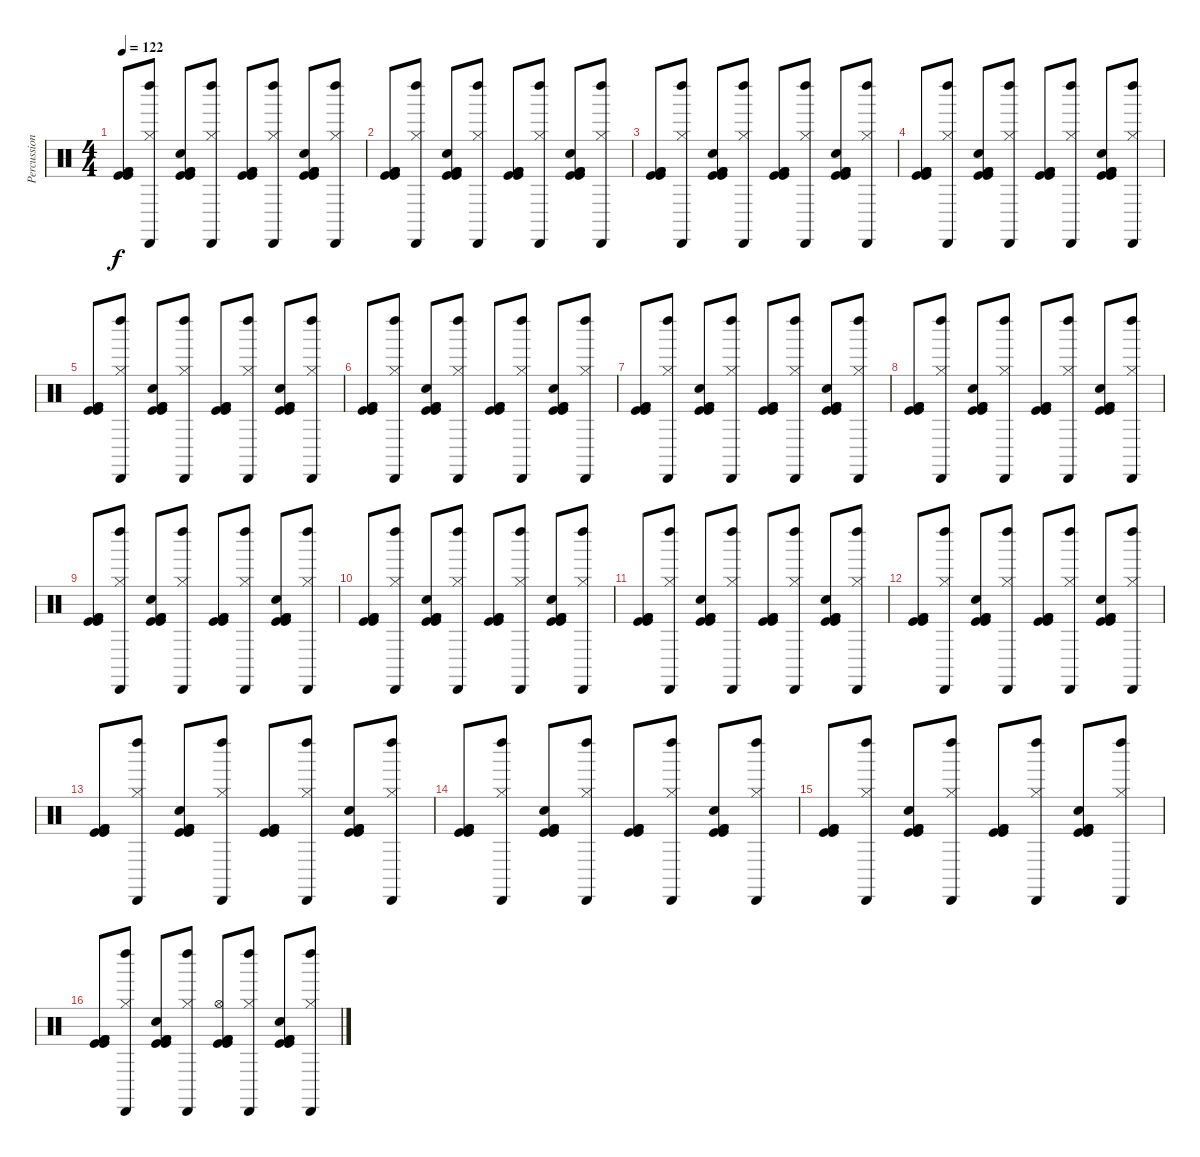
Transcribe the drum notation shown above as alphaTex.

\track ("Percussion" "Percussion") {instrument percussion}
\staff {score}
\articulation defaults
\ts (4 4)
\tempo 122
\clef neutral
\ks c
("Kick (hit)" "Kick (hit)" "Kick (hit) 2" "Kick (hit) 2").8{dy f} ("Cabasa (hit)" "Left Maraca (hit)" "Hi-Hat (closed)").8 ("Hand Clap (hit)" "Kick (hit)" "Kick (hit)" "Kick (hit) 2" "Kick (hit) 2").8 ("Cabasa (hit)" "Left Maraca (hit)" "Hi-Hat (closed)").8 ("Kick (hit)" "Kick (hit) 2" "Kick (hit) 2" "Kick (hit)").8 ("Cabasa (hit)" "Left Maraca (hit)" "Hi-Hat (closed)").8 ("Hand Clap (hit)" "Kick (hit) 2" "Kick (hit)" "Kick (hit) 2" "Kick (hit)").8 ("Cabasa (hit)" "Left Maraca (hit)" "Hi-Hat (closed)").8 |
("Kick (hit)" "Kick (hit)" "Kick (hit) 2" "Kick (hit) 2").8 ("Cabasa (hit)" "Left Maraca (hit)" "Hi-Hat (closed)").8 ("Hand Clap (hit)" "Kick (hit)" "Kick (hit)" "Kick (hit) 2" "Kick (hit) 2").8 ("Cabasa (hit)" "Left Maraca (hit)" "Hi-Hat (closed)").8 ("Kick (hit)" "Kick (hit) 2" "Kick (hit) 2" "Kick (hit)").8 ("Cabasa (hit)" "Left Maraca (hit)" "Hi-Hat (closed)").8 ("Hand Clap (hit)" "Kick (hit) 2" "Kick (hit)" "Kick (hit) 2" "Kick (hit)").8 ("Cabasa (hit)" "Left Maraca (hit)" "Hi-Hat (closed)").8 |
("Kick (hit)" "Kick (hit)" "Kick (hit) 2" "Kick (hit) 2").8 ("Cabasa (hit)" "Left Maraca (hit)" "Hi-Hat (closed)").8 ("Hand Clap (hit)" "Kick (hit)" "Kick (hit)" "Kick (hit) 2" "Kick (hit) 2").8 ("Cabasa (hit)" "Left Maraca (hit)" "Hi-Hat (closed)").8 ("Kick (hit)" "Kick (hit) 2" "Kick (hit) 2" "Kick (hit)").8 ("Cabasa (hit)" "Left Maraca (hit)" "Hi-Hat (closed)").8 ("Hand Clap (hit)" "Kick (hit) 2" "Kick (hit)" "Kick (hit) 2" "Kick (hit)").8 ("Cabasa (hit)" "Left Maraca (hit)" "Hi-Hat (closed)").8 |
("Kick (hit)" "Kick (hit)" "Kick (hit) 2" "Kick (hit) 2").8 ("Cabasa (hit)" "Left Maraca (hit)" "Hi-Hat (closed)").8 ("Hand Clap (hit)" "Kick (hit)" "Kick (hit)" "Kick (hit) 2" "Kick (hit) 2").8 ("Cabasa (hit)" "Left Maraca (hit)" "Hi-Hat (closed)").8 ("Kick (hit)" "Kick (hit) 2" "Kick (hit) 2" "Kick (hit)").8 ("Cabasa (hit)" "Left Maraca (hit)" "Hi-Hat (closed)").8 ("Hand Clap (hit)" "Kick (hit) 2" "Kick (hit)" "Kick (hit) 2" "Kick (hit)").8 ("Cabasa (hit)" "Left Maraca (hit)" "Hi-Hat (closed)").8 |
("Kick (hit)" "Kick (hit)" "Kick (hit) 2" "Kick (hit) 2").8 ("Cabasa (hit)" "Left Maraca (hit)" "Hi-Hat (closed)").8 ("Hand Clap (hit)" "Kick (hit)" "Kick (hit)" "Kick (hit) 2" "Kick (hit) 2").8 ("Cabasa (hit)" "Left Maraca (hit)" "Hi-Hat (closed)").8 ("Kick (hit)" "Kick (hit) 2" "Kick (hit) 2" "Kick (hit)").8 ("Cabasa (hit)" "Left Maraca (hit)" "Hi-Hat (closed)").8 ("Hand Clap (hit)" "Kick (hit) 2" "Kick (hit)" "Kick (hit) 2" "Kick (hit)").8 ("Cabasa (hit)" "Left Maraca (hit)" "Hi-Hat (closed)").8 |
("Kick (hit)" "Kick (hit)" "Kick (hit) 2" "Kick (hit) 2").8 ("Cabasa (hit)" "Left Maraca (hit)" "Hi-Hat (closed)").8 ("Hand Clap (hit)" "Kick (hit)" "Kick (hit)" "Kick (hit) 2" "Kick (hit) 2").8 ("Cabasa (hit)" "Left Maraca (hit)" "Hi-Hat (closed)").8 ("Kick (hit)" "Kick (hit) 2" "Kick (hit) 2" "Kick (hit)").8 ("Cabasa (hit)" "Left Maraca (hit)" "Hi-Hat (closed)").8 ("Hand Clap (hit)" "Kick (hit) 2" "Kick (hit)" "Kick (hit) 2" "Kick (hit)").8 ("Cabasa (hit)" "Left Maraca (hit)" "Hi-Hat (closed)").8 |
("Kick (hit)" "Kick (hit)" "Kick (hit) 2" "Kick (hit) 2").8 ("Cabasa (hit)" "Left Maraca (hit)" "Hi-Hat (closed)").8 ("Hand Clap (hit)" "Kick (hit)" "Kick (hit)" "Kick (hit) 2" "Kick (hit) 2").8 ("Cabasa (hit)" "Left Maraca (hit)" "Hi-Hat (closed)").8 ("Kick (hit)" "Kick (hit) 2" "Kick (hit) 2" "Kick (hit)").8 ("Cabasa (hit)" "Left Maraca (hit)" "Hi-Hat (closed)").8 ("Hand Clap (hit)" "Kick (hit) 2" "Kick (hit)" "Kick (hit) 2" "Kick (hit)").8 ("Cabasa (hit)" "Left Maraca (hit)" "Hi-Hat (closed)").8 |
("Kick (hit)" "Kick (hit)" "Kick (hit) 2" "Kick (hit) 2").8 ("Cabasa (hit)" "Left Maraca (hit)" "Hi-Hat (closed)").8 ("Hand Clap (hit)" "Kick (hit)" "Kick (hit)" "Kick (hit) 2" "Kick (hit) 2").8 ("Cabasa (hit)" "Left Maraca (hit)" "Hi-Hat (closed)").8 ("Kick (hit)" "Kick (hit) 2" "Kick (hit) 2" "Kick (hit)").8 ("Cabasa (hit)" "Left Maraca (hit)" "Hi-Hat (closed)").8 ("Hand Clap (hit)" "Kick (hit) 2" "Kick (hit)" "Kick (hit) 2" "Kick (hit)").8 ("Cabasa (hit)" "Left Maraca (hit)" "Hi-Hat (closed)").8 |
("Kick (hit)" "Kick (hit)" "Kick (hit) 2" "Kick (hit) 2").8 ("Cabasa (hit)" "Left Maraca (hit)" "Hi-Hat (closed)").8 ("Hand Clap (hit)" "Kick (hit)" "Kick (hit)" "Kick (hit) 2" "Kick (hit) 2").8 ("Cabasa (hit)" "Left Maraca (hit)" "Hi-Hat (closed)").8 ("Kick (hit)" "Kick (hit) 2" "Kick (hit) 2" "Kick (hit)").8 ("Cabasa (hit)" "Left Maraca (hit)" "Hi-Hat (closed)").8 ("Hand Clap (hit)" "Kick (hit) 2" "Kick (hit)" "Kick (hit) 2" "Kick (hit)").8 ("Cabasa (hit)" "Left Maraca (hit)" "Hi-Hat (closed)").8 |
("Kick (hit)" "Kick (hit)" "Kick (hit) 2" "Kick (hit) 2").8 ("Cabasa (hit)" "Left Maraca (hit)" "Hi-Hat (closed)").8 ("Hand Clap (hit)" "Kick (hit)" "Kick (hit)" "Kick (hit) 2" "Kick (hit) 2").8 ("Cabasa (hit)" "Left Maraca (hit)" "Hi-Hat (closed)").8 ("Kick (hit)" "Kick (hit) 2" "Kick (hit) 2" "Kick (hit)").8 ("Cabasa (hit)" "Left Maraca (hit)" "Hi-Hat (closed)").8 ("Hand Clap (hit)" "Kick (hit) 2" "Kick (hit)" "Kick (hit) 2" "Kick (hit)").8 ("Cabasa (hit)" "Left Maraca (hit)" "Hi-Hat (closed)").8 |
("Kick (hit)" "Kick (hit)" "Kick (hit) 2" "Kick (hit) 2").8 ("Cabasa (hit)" "Left Maraca (hit)" "Hi-Hat (closed)").8 ("Hand Clap (hit)" "Kick (hit)" "Kick (hit)" "Kick (hit) 2" "Kick (hit) 2").8 ("Cabasa (hit)" "Left Maraca (hit)" "Hi-Hat (closed)").8 ("Kick (hit)" "Kick (hit) 2" "Kick (hit) 2" "Kick (hit)").8 ("Cabasa (hit)" "Left Maraca (hit)" "Hi-Hat (closed)").8 ("Hand Clap (hit)" "Kick (hit) 2" "Kick (hit)" "Kick (hit) 2" "Kick (hit)").8 ("Cabasa (hit)" "Left Maraca (hit)" "Hi-Hat (closed)").8 |
("Kick (hit)" "Kick (hit)" "Kick (hit) 2" "Kick (hit) 2").8 ("Cabasa (hit)" "Left Maraca (hit)" "Hi-Hat (closed)").8 ("Hand Clap (hit)" "Kick (hit)" "Kick (hit)" "Kick (hit) 2" "Kick (hit) 2").8 ("Cabasa (hit)" "Left Maraca (hit)" "Hi-Hat (closed)").8 ("Kick (hit)" "Kick (hit) 2" "Kick (hit) 2" "Kick (hit)").8 ("Cabasa (hit)" "Left Maraca (hit)" "Hi-Hat (closed)").8 ("Hand Clap (hit)" "Kick (hit) 2" "Kick (hit)" "Kick (hit) 2" "Kick (hit)").8 ("Cabasa (hit)" "Left Maraca (hit)" "Hi-Hat (closed)").8 |
("Kick (hit)" "Kick (hit)" "Kick (hit) 2" "Kick (hit) 2").8 ("Cabasa (hit)" "Left Maraca (hit)" "Hi-Hat (closed)").8 ("Hand Clap (hit)" "Kick (hit)" "Kick (hit)" "Kick (hit) 2" "Kick (hit) 2").8 ("Cabasa (hit)" "Left Maraca (hit)" "Hi-Hat (closed)").8 ("Kick (hit)" "Kick (hit) 2" "Kick (hit) 2" "Kick (hit)").8 ("Cabasa (hit)" "Left Maraca (hit)" "Hi-Hat (closed)").8 ("Hand Clap (hit)" "Kick (hit) 2" "Kick (hit)" "Kick (hit) 2" "Kick (hit)").8 ("Cabasa (hit)" "Left Maraca (hit)" "Hi-Hat (closed)").8 |
("Kick (hit)" "Kick (hit)" "Kick (hit) 2" "Kick (hit) 2").8 ("Cabasa (hit)" "Left Maraca (hit)" "Hi-Hat (closed)").8 ("Hand Clap (hit)" "Kick (hit)" "Kick (hit)" "Kick (hit) 2" "Kick (hit) 2").8 ("Cabasa (hit)" "Left Maraca (hit)" "Hi-Hat (closed)").8 ("Kick (hit)" "Kick (hit) 2" "Kick (hit) 2" "Kick (hit)").8 ("Cabasa (hit)" "Left Maraca (hit)" "Hi-Hat (closed)").8 ("Hand Clap (hit)" "Kick (hit) 2" "Kick (hit)" "Kick (hit) 2" "Kick (hit)").8 ("Cabasa (hit)" "Left Maraca (hit)" "Hi-Hat (closed)").8 |
("Kick (hit)" "Kick (hit)" "Kick (hit) 2" "Kick (hit) 2").8 ("Cabasa (hit)" "Left Maraca (hit)" "Hi-Hat (closed)").8 ("Hand Clap (hit)" "Kick (hit)" "Kick (hit)" "Kick (hit) 2" "Kick (hit) 2").8 ("Cabasa (hit)" "Left Maraca (hit)" "Hi-Hat (closed)").8 ("Kick (hit)" "Kick (hit) 2" "Kick (hit) 2" "Kick (hit)").8 ("Cabasa (hit)" "Left Maraca (hit)" "Hi-Hat (closed)").8 ("Hand Clap (hit)" "Kick (hit) 2" "Kick (hit)" "Kick (hit) 2" "Kick (hit)").8 ("Cabasa (hit)" "Left Maraca (hit)" "Hi-Hat (closed)").8 |
("Kick (hit)" "Kick (hit)" "Kick (hit) 2" "Kick (hit) 2").8 ("Cabasa (hit)" "Left Maraca (hit)" "Hi-Hat (closed)").8 ("Hand Clap (hit)" "Kick (hit)" "Kick (hit)" "Kick (hit) 2" "Kick (hit) 2").8 ("Cabasa (hit)" "Left Maraca (hit)" "Hi-Hat (closed)").8 ("Hi-Hat (open)" "Kick (hit)" "Kick (hit) 2" "Kick (hit) 2" "Kick (hit)").8 ("Cabasa (hit)" "Left Maraca (hit)" "Hi-Hat (closed)").8 ("Hand Clap (hit)" "Kick (hit) 2" "Kick (hit)" "Kick (hit) 2" "Kick (hit)").8 ("Cabasa (hit)" "Left Maraca (hit)" "Hi-Hat (closed)").8
